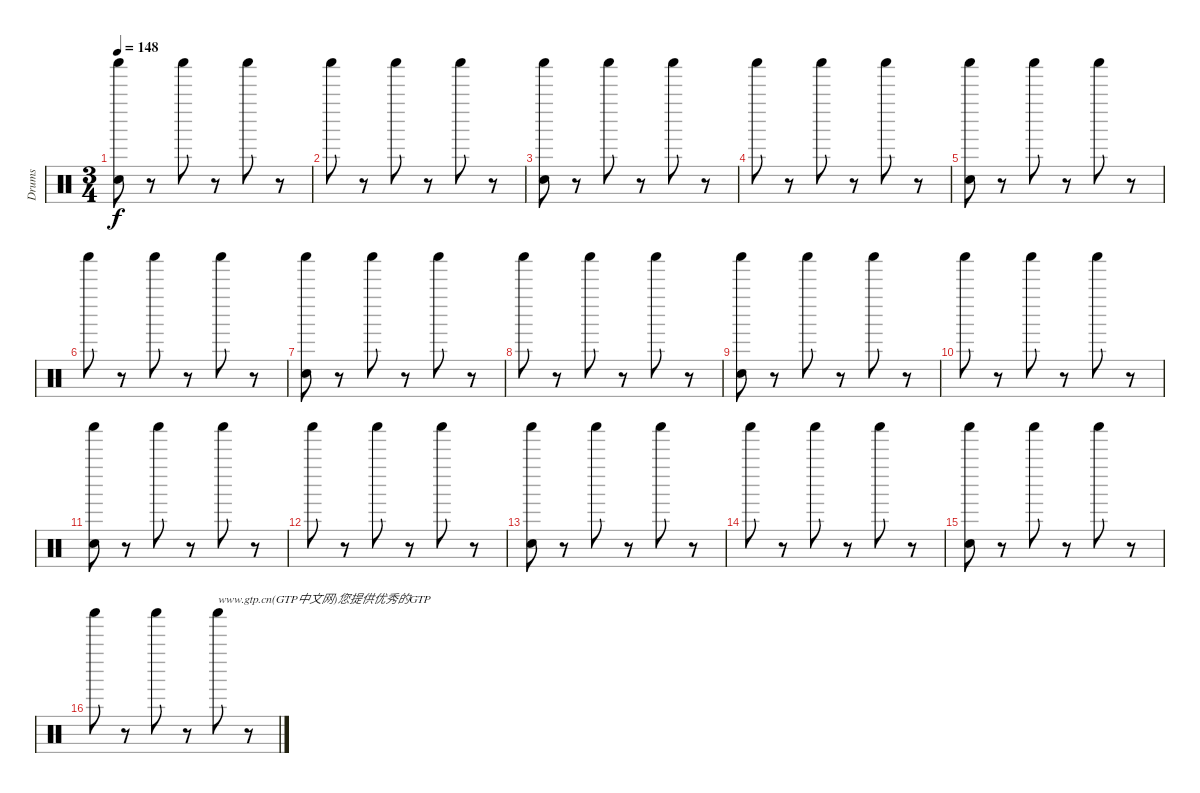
\track ("Drums" "Drums") {instrument percussion}
\staff {score}
\articulation defaults
\ts (3 4)
\tempo 148
\clef neutral
\ks c
("Shaker (hit)" "Hand Clap (hit)").8{dy f} r.8 "Shaker (hit)".8 r.8 "Shaker (hit)".8 r.8 |
"Shaker (hit)".8 r.8 "Shaker (hit)".8 r.8 "Shaker (hit)".8 r.8 |
("Shaker (hit)" "Hand Clap (hit)").8 r.8 "Shaker (hit)".8 r.8 "Shaker (hit)".8 r.8 |
"Shaker (hit)".8 r.8 "Shaker (hit)".8 r.8 "Shaker (hit)".8 r.8 |
("Shaker (hit)" "Hand Clap (hit)").8 r.8 "Shaker (hit)".8 r.8 "Shaker (hit)".8 r.8 |
"Shaker (hit)".8 r.8 "Shaker (hit)".8 r.8 "Shaker (hit)".8 r.8 |
("Shaker (hit)" "Hand Clap (hit)").8 r.8 "Shaker (hit)".8 r.8 "Shaker (hit)".8 r.8 |
"Shaker (hit)".8 r.8 "Shaker (hit)".8 r.8 "Shaker (hit)".8 r.8 |
("Shaker (hit)" "Hand Clap (hit)").8 r.8 "Shaker (hit)".8 r.8 "Shaker (hit)".8 r.8 |
"Shaker (hit)".8 r.8 "Shaker (hit)".8 r.8 "Shaker (hit)".8 r.8 |
("Shaker (hit)" "Hand Clap (hit)").8 r.8 "Shaker (hit)".8 r.8 "Shaker (hit)".8 r.8 |
"Shaker (hit)".8 r.8 "Shaker (hit)".8 r.8 "Shaker (hit)".8 r.8 |
("Shaker (hit)" "Hand Clap (hit)").8 r.8 "Shaker (hit)".8 r.8 "Shaker (hit)".8 r.8 |
"Shaker (hit)".8 r.8 "Shaker (hit)".8 r.8 "Shaker (hit)".8 r.8 |
("Shaker (hit)" "Hand Clap (hit)").8 r.8 "Shaker (hit)".8 r.8 "Shaker (hit)".8 r.8 |
"Shaker (hit)".8 r.8 "Shaker (hit)".8 r.8 "Shaker (hit)".8{txt "www.gtp.cn(GTP中文网)您提供优秀的GTP"} r.8
